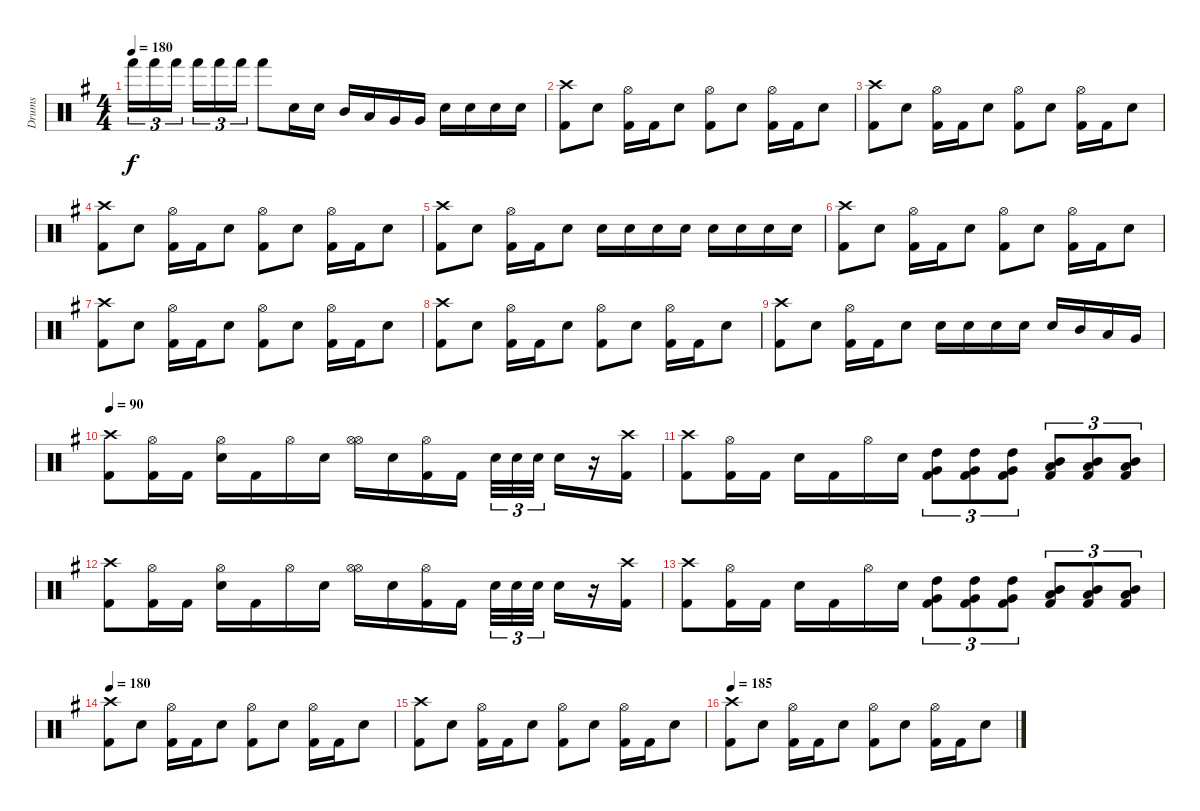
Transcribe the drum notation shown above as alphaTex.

\track ("Drums" "Drums") {instrument percussion}
\staff {score}
\articulation defaults
\ts (4 4)
\tempo 180
\clef neutral
\ks eminor "Hand (hit)".16{tu (3 2) dy f} "Hand (hit)".16{tu (3 2)} "Hand (hit)".16{tu (3 2)} "Hand (hit)".16{tu (3 2)} "Hand (hit)".16{tu (3 2)} "Hand (hit)".16{tu (3 2)} "Hand (hit)".8 "Snare (hit) 2".16 "Snare (hit) 2".16 "Mid Tom (hit)".16 "Low Tom (hit)".16 "Very Low Tom (hit)".16 "Very Low Tom (hit)".16 "Snare (hit) 2".16 "Snare (hit) 2".16 "Snare (hit) 2".16 "Snare (hit) 2".16
|
("Crash high (hit)" "Kick (hit) 2").8 "Snare (hit) 2".8 ("Hi-Hat (open)" "Kick (hit) 2").16 "Kick (hit) 2".16 "Snare (hit) 2".8 ("Hi-Hat (open)" "Kick (hit) 2").8 "Snare (hit) 2".8 ("Hi-Hat (open)" "Kick (hit) 2").16 "Kick (hit) 2".16 "Snare (hit) 2".8 |
("Crash high (hit)" "Kick (hit) 2").8 "Snare (hit) 2".8 ("Hi-Hat (open)" "Kick (hit) 2").16 "Kick (hit) 2".16 "Snare (hit) 2".8 ("Hi-Hat (open)" "Kick (hit) 2").8 "Snare (hit) 2".8 ("Hi-Hat (open)" "Kick (hit) 2").16 "Kick (hit) 2".16 "Snare (hit) 2".8 |
("Crash high (hit)" "Kick (hit) 2").8 "Snare (hit) 2".8 ("Hi-Hat (open)" "Kick (hit) 2").16 "Kick (hit) 2".16 "Snare (hit) 2".8 ("Hi-Hat (open)" "Kick (hit) 2").8 "Snare (hit) 2".8 ("Hi-Hat (open)" "Kick (hit) 2").16 "Kick (hit) 2".16 "Snare (hit) 2".8 |
("Crash high (hit)" "Kick (hit) 2").8 "Snare (hit) 2".8 ("Hi-Hat (open)" "Kick (hit) 2").16 "Kick (hit) 2".16 "Snare (hit) 2".8 "Snare (hit) 2".16 "Snare (hit) 2".16 "Snare (hit) 2".16 "Snare (hit) 2".16 "Snare (hit) 2".16 "Snare (hit) 2".16 "Snare (hit) 2".16 "Snare (hit) 2".16 |
("Crash high (hit)" "Kick (hit) 2").8 "Snare (hit) 2".8 ("Hi-Hat (open)" "Kick (hit) 2").16 "Kick (hit) 2".16 "Snare (hit) 2".8 ("Hi-Hat (open)" "Kick (hit) 2").8 "Snare (hit) 2".8 ("Hi-Hat (open)" "Kick (hit) 2").16 "Kick (hit) 2".16 "Snare (hit) 2".8 |
("Crash high (hit)" "Kick (hit) 2").8 "Snare (hit) 2".8 ("Hi-Hat (open)" "Kick (hit) 2").16 "Kick (hit) 2".16 "Snare (hit) 2".8 ("Hi-Hat (open)" "Kick (hit) 2").8 "Snare (hit) 2".8 ("Hi-Hat (open)" "Kick (hit) 2").16 "Kick (hit) 2".16 "Snare (hit) 2".8 |
("Crash high (hit)" "Kick (hit) 2").8 "Snare (hit) 2".8 ("Hi-Hat (open)" "Kick (hit) 2").16 "Kick (hit) 2".16 "Snare (hit) 2".8 ("Hi-Hat (open)" "Kick (hit) 2").8 "Snare (hit) 2".8 ("Hi-Hat (open)" "Kick (hit) 2").16 "Kick (hit) 2".16 "Snare (hit) 2".8 |
("Crash high (hit)" "Kick (hit) 2").8 "Snare (hit) 2".8 ("Hi-Hat (open)" "Kick (hit) 2").16 "Kick (hit) 2".16 "Snare (hit) 2".8 "Snare (hit) 2".16 "Snare (hit) 2".16 "Snare (hit) 2".16 "Snare (hit) 2".16 "Snare (hit) 2".16 "Mid Tom (hit)".16 "Low Tom (hit)".16 "Very Low Tom (hit)".16 |
\tempo 90
("Crash high (hit)" "Kick (hit) 2").8 ("Hi-Hat (open)" "Kick (hit) 2").16 "Kick (hit) 2".16 ("Hi-Hat (open)" "Snare (hit) 2").16 "Kick (hit) 2".16 "Hi-Hat (open)".16 "Snare (hit) 2".16 ("Hi-Hat (open)" "Hi-Hat (open)").16 "Snare (hit) 2".16 ("Hi-Hat (open)" "Kick (hit) 2").16 "Kick (hit) 2".16 "Snare (hit) 2".32{tu (3 2)} "Snare (hit) 2".32{tu (3 2)} "Snare (hit) 2".32{tu (3 2)} "Snare (hit) 2".16 r.16 ("Crash high (hit)" "Kick (hit) 2").16 |
("Crash high (hit)" "Kick (hit) 2").8 ("Hi-Hat (open)" "Kick (hit) 2").16 "Kick (hit) 2".16 "Snare (hit) 2".16 "Kick (hit) 2".16 "Hi-Hat (open)".16 "Snare (hit) 2".16 ("High Tom (hit)" "Very Low Tom (hit)" "Kick (hit) 2").8{tu (3 2)} ("High Tom (hit)" "Very Low Tom (hit)" "Kick (hit) 2").8{tu (3 2)} ("High Tom (hit)" "Very Low Tom (hit)" "Kick (hit) 2").8{tu (3 2)} ("Mid Tom (hit)" "Low Floor Tom (hit)" "Kick (hit) 2").8{tu (3 2)} ("Mid Tom (hit)" "Low Floor Tom (hit)" "Kick (hit) 2").8{tu (3 2)} ("Mid Tom (hit)" "Low Floor Tom (hit)" "Kick (hit) 2").8{tu (3 2)} |
("Crash high (hit)" "Kick (hit) 2").8 ("Hi-Hat (open)" "Kick (hit) 2").16 "Kick (hit) 2".16 ("Hi-Hat (open)" "Snare (hit) 2").16 "Kick (hit) 2".16 "Hi-Hat (open)".16 "Snare (hit) 2".16 ("Hi-Hat (open)" "Hi-Hat (open)").16 "Snare (hit) 2".16 ("Hi-Hat (open)" "Kick (hit) 2").16 "Kick (hit) 2".16 "Snare (hit) 2".32{tu (3 2)} "Snare (hit) 2".32{tu (3 2)} "Snare (hit) 2".32{tu (3 2)} "Snare (hit) 2".16 r.16 ("Crash high (hit)" "Kick (hit) 2").16 |
("Crash high (hit)" "Kick (hit) 2").8 ("Hi-Hat (open)" "Kick (hit) 2").16 "Kick (hit) 2".16 "Snare (hit) 2".16 "Kick (hit) 2".16 "Hi-Hat (open)".16 "Snare (hit) 2".16 ("High Tom (hit)" "Very Low Tom (hit)" "Kick (hit) 2").8{tu (3 2)} ("High Tom (hit)" "Very Low Tom (hit)" "Kick (hit) 2").8{tu (3 2)} ("High Tom (hit)" "Very Low Tom (hit)" "Kick (hit) 2").8{tu (3 2)} ("Mid Tom (hit)" "Low Floor Tom (hit)" "Kick (hit) 2").8{tu (3 2)} ("Mid Tom (hit)" "Low Floor Tom (hit)" "Kick (hit) 2").8{tu (3 2)} ("Mid Tom (hit)" "Low Floor Tom (hit)" "Kick (hit) 2").8{tu (3 2)} |
\tempo 180
("Crash high (hit)" "Kick (hit) 2").8 "Snare (hit) 2".8 ("Hi-Hat (open)" "Kick (hit) 2").16 "Kick (hit) 2".16 "Snare (hit) 2".8 ("Hi-Hat (open)" "Kick (hit) 2").8 "Snare (hit) 2".8 ("Hi-Hat (open)" "Kick (hit) 2").16 "Kick (hit) 2".16 "Snare (hit) 2".8 |
("Crash high (hit)" "Kick (hit) 2").8 "Snare (hit) 2".8 ("Hi-Hat (open)" "Kick (hit) 2").16 "Kick (hit) 2".16 "Snare (hit) 2".8 ("Hi-Hat (open)" "Kick (hit) 2").8 "Snare (hit) 2".8 ("Hi-Hat (open)" "Kick (hit) 2").16 "Kick (hit) 2".16 "Snare (hit) 2".8 |
\tempo 185
("Crash high (hit)" "Kick (hit) 2").8 "Snare (hit) 2".8 ("Hi-Hat (open)" "Kick (hit) 2").16 "Kick (hit) 2".16 "Snare (hit) 2".8 ("Hi-Hat (open)" "Kick (hit) 2").8 "Snare (hit) 2".8 ("Hi-Hat (open)" "Kick (hit) 2").16 "Kick (hit) 2".16 "Snare (hit) 2".8
